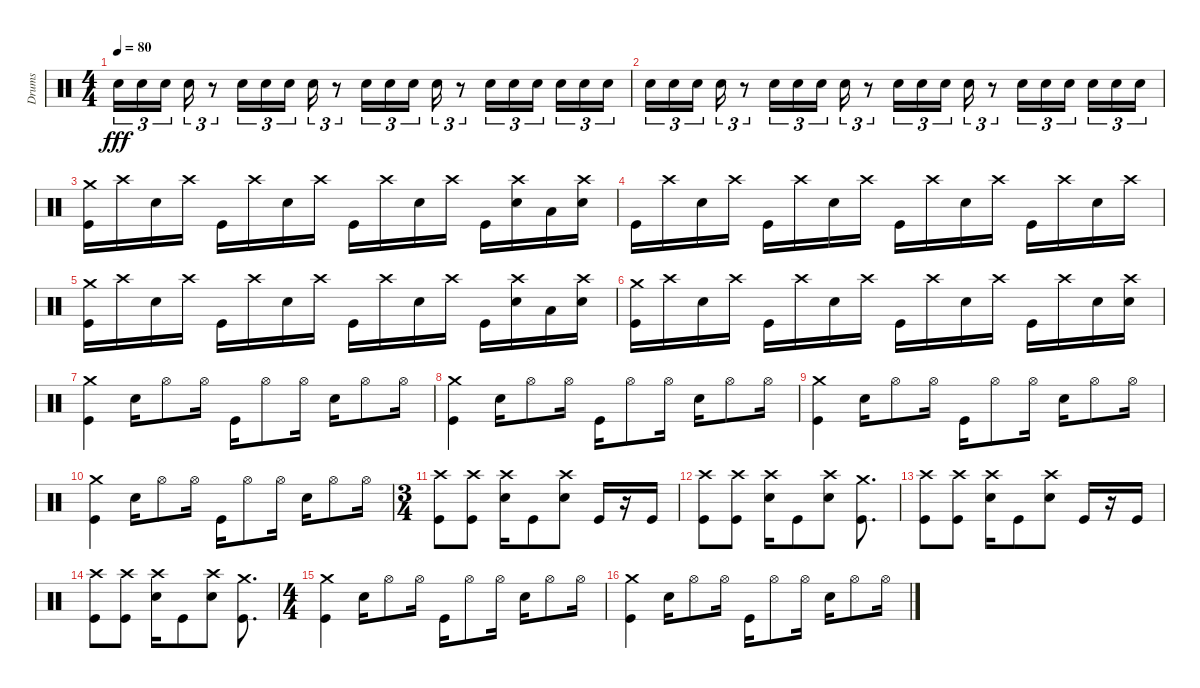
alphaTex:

\track ("Drums" "Drums") {instrument percussion}
\staff {score}
\articulation defaults
\ts (4 4)
\tempo 80
\clef neutral
\ks c "Snare (hit) 2".16{tu (3 2) dy fff} "Snare (hit) 2".16{tu (3 2)} "Snare (hit) 2".16{tu (3 2)} "Snare (hit) 2".16{tu (3 2)}
r.8{tu (3 2)} "Snare (hit) 2".16{tu (3 2)} "Snare (hit) 2".16{tu (3 2)} "Snare (hit) 2".16{tu (3 2)} "Snare (hit) 2".16{tu (3 2)} r.8{tu (3 2)} "Snare (hit) 2".16{tu (3 2)} "Snare (hit) 2".16{tu (3 2)} "Snare (hit) 2".16{tu (3 2)} "Snare (hit) 2".16{tu (3 2)} r.8{tu (3 2)} "Snare (hit) 2".16{tu (3 2)} "Snare (hit) 2".16{tu (3 2)} "Snare (hit) 2".16{tu (3 2)} "Snare (hit) 2".16{tu (3 2)} "Snare (hit) 2".16{tu (3 2)} "Snare (hit) 2".16{tu (3 2)} |
"Snare (hit) 2".16{tu (3 2)} "Snare (hit) 2".16{tu (3 2)} "Snare (hit) 2".16{tu (3 2)} "Snare (hit) 2".16{tu (3 2)} r.8{tu (3 2)} "Snare (hit) 2".16{tu (3 2)} "Snare (hit) 2".16{tu (3 2)} "Snare (hit) 2".16{tu (3 2)} "Snare (hit) 2".16{tu (3 2)} r.8{tu (3 2)} "Snare (hit) 2".16{tu (3 2)} "Snare (hit) 2".16{tu (3 2)} "Snare (hit) 2".16{tu (3 2)} "Snare (hit) 2".16{tu (3 2)} r.8{tu (3 2)} "Snare (hit) 2".16{tu (3 2)} "Snare (hit) 2".16{tu (3 2)} "Snare (hit) 2".16{tu (3 2)} "Snare (hit) 2".16{tu (3 2)} "Snare (hit) 2".16{tu (3 2)} "Snare (hit) 2".16{tu (3 2)} |
("Kick (hit)" "Crash medium (hit)").16 "Crash high (hit)".16 "Snare (hit) 2".16 "Crash high (hit)".16 "Kick (hit)".16 "Crash high (hit)".16 "Snare (hit) 2".16 "Crash high (hit)".16 "Kick (hit)".16 "Crash high (hit)".16 "Snare (hit) 2".16 "Crash high (hit)".16 "Kick (hit)".16 ("Crash high (hit)" "Snare (hit) 2").16 "Low Floor Tom (hit)".16 ("Crash high (hit)" "Snare (hit) 2").16 |
"Kick (hit)".16 "Crash high (hit)".16 "Snare (hit) 2".16 "Crash high (hit)".16 "Kick (hit)".16 "Crash high (hit)".16 "Snare (hit) 2".16 "Crash high (hit)".16 "Kick (hit)".16 "Crash high (hit)".16 "Snare (hit) 2".16 "Crash high (hit)".16 "Kick (hit)".16 "Crash high (hit)".16 "Snare (hit) 2".16 "Crash high (hit)".16 |
("Kick (hit)" "Crash medium (hit)").16 "Crash high (hit)".16 "Snare (hit) 2".16 "Crash high (hit)".16 "Kick (hit)".16 "Crash high (hit)".16 "Snare (hit) 2".16 "Crash high (hit)".16 "Kick (hit)".16 "Crash high (hit)".16 "Snare (hit) 2".16 "Crash high (hit)".16 "Kick (hit)".16 ("Crash high (hit)" "Snare (hit) 2").16 "Low Floor Tom (hit)".16 ("Crash high (hit)" "Snare (hit) 2").16 |
("Kick (hit)" "Crash medium (hit)").16 "Crash high (hit)".16 "Snare (hit) 2".16 "Crash high (hit)".16 "Kick (hit)".16 "Crash high (hit)".16 "Snare (hit) 2".16 "Crash high (hit)".16 "Kick (hit)".16 "Crash high (hit)".16 "Snare (hit) 2".16 "Crash high (hit)".16 "Kick (hit)".16 "Crash high (hit)".16 "Snare (hit) 2".16 ("Crash high (hit)" "Snare (hit) 2").16 |
("Kick (hit)" "Crash medium (hit)").4 "Snare (hit) 2".16 "Hi-Hat (open)".8 "Hi-Hat (open)".16 "Kick (hit)".16 "Hi-Hat (open)".8 "Hi-Hat (open)".16 "Snare (hit) 2".16 "Hi-Hat (open)".8 "Hi-Hat (open)".16 |
("Kick (hit)" "Crash medium (hit)").4 "Snare (hit) 2".16 "Hi-Hat (open)".8 "Hi-Hat (open)".16 "Kick (hit)".16 "Hi-Hat (open)".8 "Hi-Hat (open)".16 "Snare (hit) 2".16 "Hi-Hat (open)".8 "Hi-Hat (open)".16 |
("Kick (hit)" "Crash medium (hit)").4 "Snare (hit) 2".16 "Hi-Hat (open)".8 "Hi-Hat (open)".16 "Kick (hit)".16 "Hi-Hat (open)".8 "Hi-Hat (open)".16 "Snare (hit) 2".16 "Hi-Hat (open)".8 "Hi-Hat (open)".16 |
("Kick (hit)" "Crash medium (hit)").4 "Snare (hit) 2".16 "Hi-Hat (open)".8 "Hi-Hat (open)".16 "Kick (hit)".16 "Hi-Hat (open)".8 "Hi-Hat (open)".16 "Snare (hit) 2".16 "Hi-Hat (open)".8 "Hi-Hat (open)".16 |
\ts (3 4)
("Kick (hit)" "Crash high (hit)").8 ("Kick (hit)" "Crash high (hit)").8 ("Snare (hit) 2" "Crash high (hit)").16 "Kick (hit)".8 ("Snare (hit) 2" "Crash high (hit)").8 "Kick (hit)".16 r.16 "Kick (hit)".16 |
("Kick (hit)" "Crash high (hit)").8 ("Kick (hit)" "Crash high (hit)").8 ("Snare (hit) 2" "Crash high (hit)").16 "Kick (hit)".8 ("Snare (hit) 2" "Crash high (hit)").8 ("Kick (hit)" "Crash medium (hit)").8{d} |
("Kick (hit)" "Crash high (hit)").8 ("Kick (hit)" "Crash high (hit)").8 ("Snare (hit) 2" "Crash high (hit)").16 "Kick (hit)".8 ("Snare (hit) 2" "Crash high (hit)").8 "Kick (hit)".16 r.16 "Kick (hit)".16 |
("Kick (hit)" "Crash high (hit)").8 ("Kick (hit)" "Crash high (hit)").8 ("Snare (hit) 2" "Crash high (hit)").16 "Kick (hit)".8 ("Snare (hit) 2" "Crash high (hit)").8 ("Kick (hit)" "Crash medium (hit)").8{d} |
\ts (4 4)
("Kick (hit)" "Crash medium (hit)").4 "Snare (hit) 2".16 "Hi-Hat (open)".8 "Hi-Hat (open)".16 "Kick (hit)".16 "Hi-Hat (open)".8 "Hi-Hat (open)".16 "Snare (hit) 2".16 "Hi-Hat (open)".8 "Hi-Hat (open)".16 |
("Kick (hit)" "Crash medium (hit)").4 "Snare (hit) 2".16 "Hi-Hat (open)".8 "Hi-Hat (open)".16 "Kick (hit)".16 "Hi-Hat (open)".8 "Hi-Hat (open)".16 "Snare (hit) 2".16 "Hi-Hat (open)".8 "Hi-Hat (open)".16
